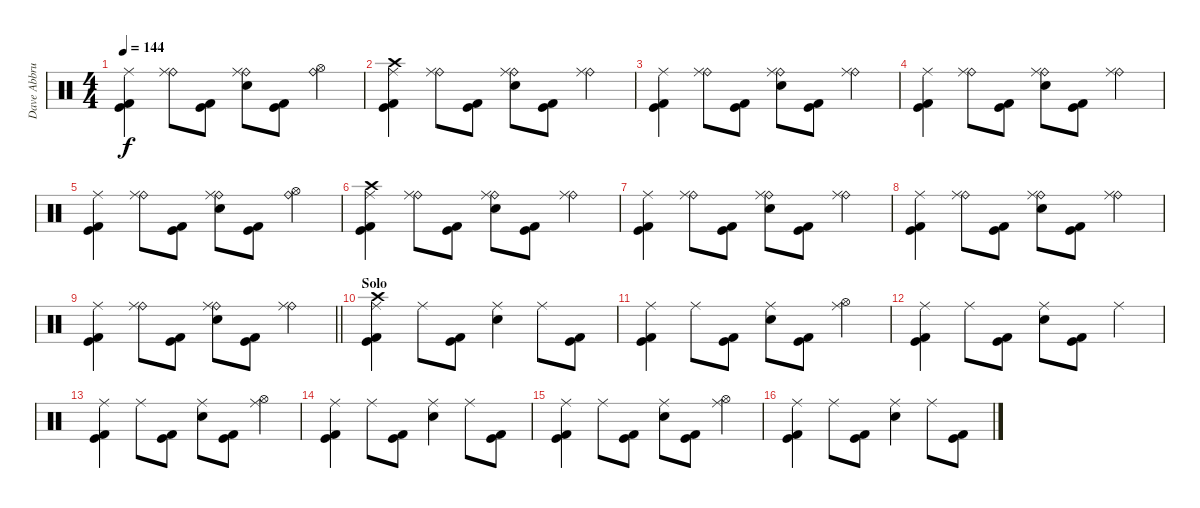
\track ("Dave Abbruzzese" "Dave Abbru") {instrument percussion}
\staff {score}
\articulation defaults
\ts (4 4)
\tempo 144
\clef neutral
\ks c
("Ride (middle)" "Kick (hit)" "Kick (hit) 2").4{dy f} ("Ride (bell)" "Ride (middle)").8 ("Kick (hit)" "Kick (hit) 2").8 ("Electric Snare (hit)" "Ride (bell)" "Ride (middle)").8 ("Kick (hit)" "Kick (hit) 2").8 ("Ride (bell)" "Hi-Hat (open)").4 |
("Crash high (hit)" "Ride (middle)" "Kick (hit)" "Kick (hit) 2").4 ("Ride (bell)" "Ride (middle)").8 ("Kick (hit)" "Kick (hit) 2").8 ("Electric Snare (hit)" "Ride (bell)" "Ride (middle)").8 ("Kick (hit)" "Kick (hit) 2").8 ("Ride (bell)" "Ride (middle)").4 |
("Ride (middle)" "Kick (hit)" "Kick (hit) 2").4 ("Ride (bell)" "Ride (middle)").8 ("Kick (hit)" "Kick (hit) 2").8 ("Electric Snare (hit)" "Ride (bell)" "Ride (middle)").8 ("Kick (hit)" "Kick (hit) 2").8 ("Ride (bell)" "Ride (middle)").4 |
("Ride (middle)" "Kick (hit)" "Kick (hit) 2").4 ("Ride (bell)" "Ride (middle)").8 ("Kick (hit)" "Kick (hit) 2").8 ("Electric Snare (hit)" "Ride (bell)" "Ride (middle)").8 ("Kick (hit)" "Kick (hit) 2").8 ("Ride (bell)" "Ride (middle)").4 |
("Ride (middle)" "Kick (hit)" "Kick (hit) 2").4 ("Ride (bell)" "Ride (middle)").8 ("Kick (hit)" "Kick (hit) 2").8 ("Electric Snare (hit)" "Ride (bell)" "Ride (middle)").8 ("Kick (hit)" "Kick (hit) 2").8 ("Ride (bell)" "Hi-Hat (open)").4 |
("Crash high (hit)" "Ride (middle)" "Kick (hit)" "Kick (hit) 2").4 ("Ride (bell)" "Ride (middle)").8 ("Kick (hit)" "Kick (hit) 2").8 ("Electric Snare (hit)" "Ride (bell)" "Ride (middle)").8 ("Kick (hit)" "Kick (hit) 2").8 ("Ride (bell)" "Ride (middle)").4 |
("Ride (middle)" "Kick (hit)" "Kick (hit) 2").4 ("Ride (bell)" "Ride (middle)").8 ("Kick (hit)" "Kick (hit) 2").8 ("Electric Snare (hit)" "Ride (bell)" "Ride (middle)").8 ("Kick (hit)" "Kick (hit) 2").8 ("Ride (bell)" "Ride (middle)").4 |
("Ride (middle)" "Kick (hit)" "Kick (hit) 2").4 ("Ride (bell)" "Ride (middle)").8 ("Kick (hit)" "Kick (hit) 2").8 ("Electric Snare (hit)" "Ride (bell)" "Ride (middle)").8 ("Kick (hit)" "Kick (hit) 2").8 ("Ride (bell)" "Ride (middle)").4 |
\barLineRight lightlight
("Ride (middle)" "Kick (hit)" "Kick (hit) 2").4 ("Ride (bell)" "Ride (middle)").8 ("Kick (hit)" "Kick (hit) 2").8 ("Electric Snare (hit)" "Ride (bell)" "Ride (middle)").8 ("Kick (hit)" "Kick (hit) 2").8 ("Ride (bell)" "Ride (middle)").4 |
\section ("" "Solo")
("Crash high (hit)" "Ride (middle)" "Kick (hit)" "Kick (hit) 2").4 "Ride (middle)".8 ("Kick (hit)" "Kick (hit) 2").8 ("Electric Snare (hit)" "Ride (middle)").4 "Ride (middle)".8 ("Kick (hit)" "Kick (hit) 2").8 |
("Ride (middle)" "Kick (hit)" "Kick (hit) 2").4 "Ride (middle)".8 ("Kick (hit)" "Kick (hit) 2").8 ("Electric Snare (hit)" "Ride (middle)").8 ("Kick (hit)" "Kick (hit) 2").8 ("Ride (middle)" "Hi-Hat (open)").4 |
("Ride (middle)" "Kick (hit)" "Kick (hit) 2").4 "Ride (middle)".8 ("Kick (hit)" "Kick (hit) 2").8 ("Electric Snare (hit)" "Ride (middle)").8 ("Kick (hit)" "Kick (hit) 2").8 "Ride (middle)".4 |
("Ride (middle)" "Kick (hit)" "Kick (hit) 2").4 "Ride (middle)".8 ("Kick (hit)" "Kick (hit) 2").8 ("Electric Snare (hit)" "Ride (middle)").8 ("Kick (hit)" "Kick (hit) 2").8 ("Ride (middle)" "Hi-Hat (open)").4 |
("Ride (middle)" "Kick (hit)" "Kick (hit) 2").4 "Ride (middle)".8 ("Kick (hit)" "Kick (hit) 2").8 ("Electric Snare (hit)" "Ride (middle)").4 "Ride (middle)".8 ("Kick (hit)" "Kick (hit) 2").8 |
("Ride (middle)" "Kick (hit)" "Kick (hit) 2").4 "Ride (middle)".8 ("Kick (hit)" "Kick (hit) 2").8 ("Electric Snare (hit)" "Ride (middle)").8 ("Kick (hit)" "Kick (hit) 2").8 ("Ride (middle)" "Hi-Hat (open)").4 |
("Ride (middle)" "Kick (hit)" "Kick (hit) 2").4 "Ride (middle)".8 ("Kick (hit)" "Kick (hit) 2").8 ("Electric Snare (hit)" "Ride (middle)").4 "Ride (middle)".8 ("Kick (hit)" "Kick (hit) 2").8
